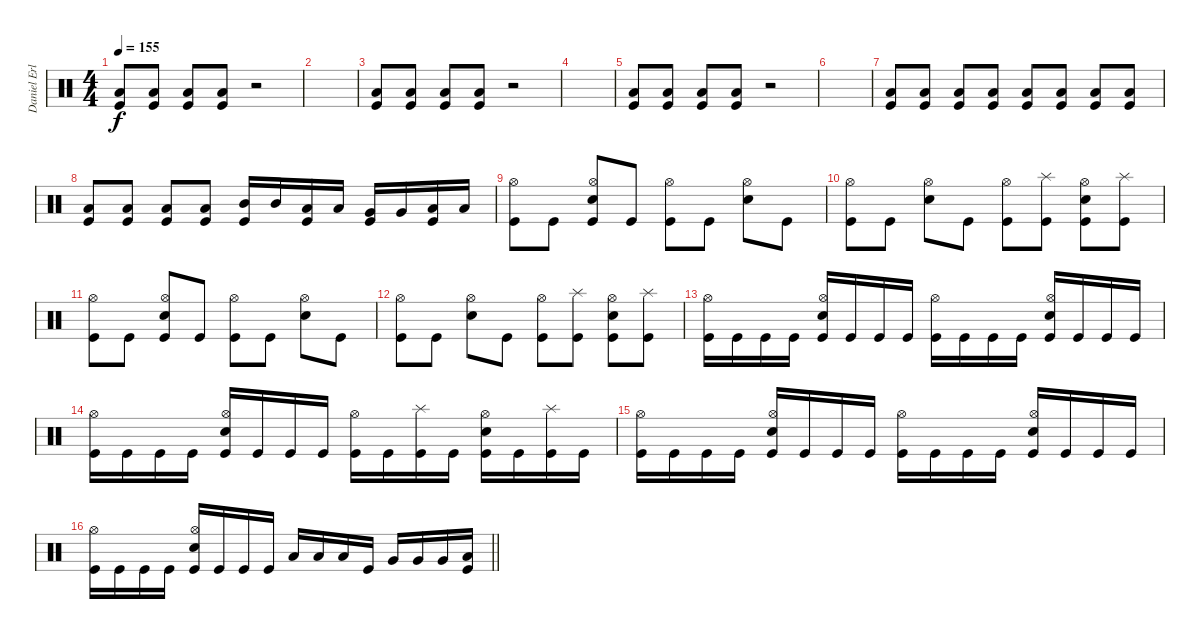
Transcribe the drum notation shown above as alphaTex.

\track ("Daniel Erlandsson" "Daniel Erl") {instrument percussion}
\staff {score}
\articulation defaults
\ts (4 4)
\tempo 155
\clef neutral
\ks c
("Low Floor Tom (hit)" "Kick (hit)").8{dy f} ("Low Floor Tom (hit)" "Kick (hit)").8 ("Low Floor Tom (hit)" "Kick (hit)").8 ("Low Floor Tom (hit)" "Kick (hit)").8 r.2 |
|
("Low Floor Tom (hit)" "Kick (hit)").8 ("Low Floor Tom (hit)" "Kick (hit)").8 ("Low Floor Tom (hit)" "Kick (hit)").8 ("Low Floor Tom (hit)" "Kick (hit)").8 r.2 |
|
("Low Floor Tom (hit)" "Kick (hit)").8 ("Low Floor Tom (hit)" "Kick (hit)").8 ("Low Floor Tom (hit)" "Kick (hit)").8 ("Low Floor Tom (hit)" "Kick (hit)").8 r.2 |
|
("Low Floor Tom (hit)" "Kick (hit)").8 ("Low Floor Tom (hit)" "Kick (hit)").8 ("Low Floor Tom (hit)" "Kick (hit)").8 ("Low Floor Tom (hit)" "Kick (hit)").8 ("Low Floor Tom (hit)" "Kick (hit)").8 ("Low Floor Tom (hit)" "Kick (hit)").8 ("Low Floor Tom (hit)" "Kick (hit)").8 ("Low Floor Tom (hit)" "Kick (hit)").8 |
("Low Floor Tom (hit)" "Kick (hit)").8 ("Low Floor Tom (hit)" "Kick (hit)").8 ("Low Floor Tom (hit)" "Kick (hit)").8 ("Low Floor Tom (hit)" "Kick (hit)").8 ("Mid Tom (hit)" "Kick (hit)").16 "Mid Tom (hit)".16 ("Low Tom (hit)" "Kick (hit)").16 "Low Tom (hit)".16 ("Very Low Tom (hit)" "Kick (hit)").16 "Very Low Tom (hit)".16 ("Low Floor Tom (hit)" "Kick (hit)").16 "Low Floor Tom (hit)".16 |
("Hi-Hat (open)" "Kick (hit)").8 "Kick (hit)".8 ("Hi-Hat (open)" "Snare (hit) 2" "Kick (hit)").8 "Kick (hit)".8 ("Hi-Hat (open)" "Kick (hit)").8 "Kick (hit)".8 ("Hi-Hat (open)" "Snare (hit) 2").8 "Kick (hit)".8 |
("Hi-Hat (open)" "Kick (hit)").8 "Kick (hit)".8 ("Hi-Hat (open)" "Snare (hit) 2").8 "Kick (hit)".8 ("Hi-Hat (open)" "Kick (hit)").8 ("Splash (hit)" "Kick (hit)").8 ("Hi-Hat (open)" "Snare (hit) 2" "Kick (hit)").8 ("Splash (hit)" "Kick (hit)").8 |
("Hi-Hat (open)" "Kick (hit)").8 "Kick (hit)".8 ("Hi-Hat (open)" "Snare (hit) 2" "Kick (hit)").8 "Kick (hit)".8 ("Hi-Hat (open)" "Kick (hit)").8 "Kick (hit)".8 ("Hi-Hat (open)" "Snare (hit) 2").8 "Kick (hit)".8 |
("Hi-Hat (open)" "Kick (hit)").8 "Kick (hit)".8 ("Hi-Hat (open)" "Snare (hit) 2").8 "Kick (hit)".8 ("Hi-Hat (open)" "Kick (hit)").8 ("Splash (hit)" "Kick (hit)").8 ("Hi-Hat (open)" "Snare (hit) 2" "Kick (hit)").8 ("Splash (hit)" "Kick (hit)").8 |
("Hi-Hat (open)" "Kick (hit)").16 "Kick (hit)".16 "Kick (hit)".16 "Kick (hit)".16 ("Hi-Hat (open)" "Snare (hit) 2" "Kick (hit)").16 "Kick (hit)".16 "Kick (hit)".16 "Kick (hit)".16 ("Hi-Hat (open)" "Kick (hit)").16 "Kick (hit)".16 "Kick (hit)".16 "Kick (hit)".16 ("Hi-Hat (open)" "Snare (hit) 2" "Kick (hit)").16 "Kick (hit)".16 "Kick (hit)".16 "Kick (hit)".16 |
("Hi-Hat (open)" "Kick (hit)").16 "Kick (hit)".16 "Kick (hit)".16 "Kick (hit)".16 ("Hi-Hat (open)" "Snare (hit) 2" "Kick (hit)").16 "Kick (hit)".16 "Kick (hit)".16 "Kick (hit)".16 ("Hi-Hat (open)" "Kick (hit)").16 "Kick (hit)".16 ("Splash (hit)" "Kick (hit)").16 "Kick (hit)".16 ("Hi-Hat (open)" "Snare (hit) 2" "Kick (hit)").16 "Kick (hit)".16 ("Splash (hit)" "Kick (hit)").16 "Kick (hit)".16 |
("Hi-Hat (open)" "Kick (hit)").16 "Kick (hit)".16 "Kick (hit)".16 "Kick (hit)".16 ("Hi-Hat (open)" "Snare (hit) 2" "Kick (hit)").16 "Kick (hit)".16 "Kick (hit)".16 "Kick (hit)".16 ("Hi-Hat (open)" "Kick (hit)").16 "Kick (hit)".16 "Kick (hit)".16 "Kick (hit)".16 ("Hi-Hat (open)" "Snare (hit) 2" "Kick (hit)").16 "Kick (hit)".16 "Kick (hit)".16 "Kick (hit)".16 |
\barLineRight lightlight
("Hi-Hat (open)" "Kick (hit)").16 "Kick (hit)".16 "Kick (hit)".16 "Kick (hit)".16 ("Hi-Hat (open)" "Snare (hit) 2" "Kick (hit)").16 "Kick (hit)".16 "Kick (hit)".16 "Kick (hit)".16 "Low Tom (hit)".16 "Low Tom (hit)".16 "Low Tom (hit)".16 "Kick (hit)".16 "Very Low Tom (hit)".16 "Very Low Tom (hit)".16 "Very Low Tom (hit)".16 ("Low Floor Tom (hit)" "Kick (hit)").16
